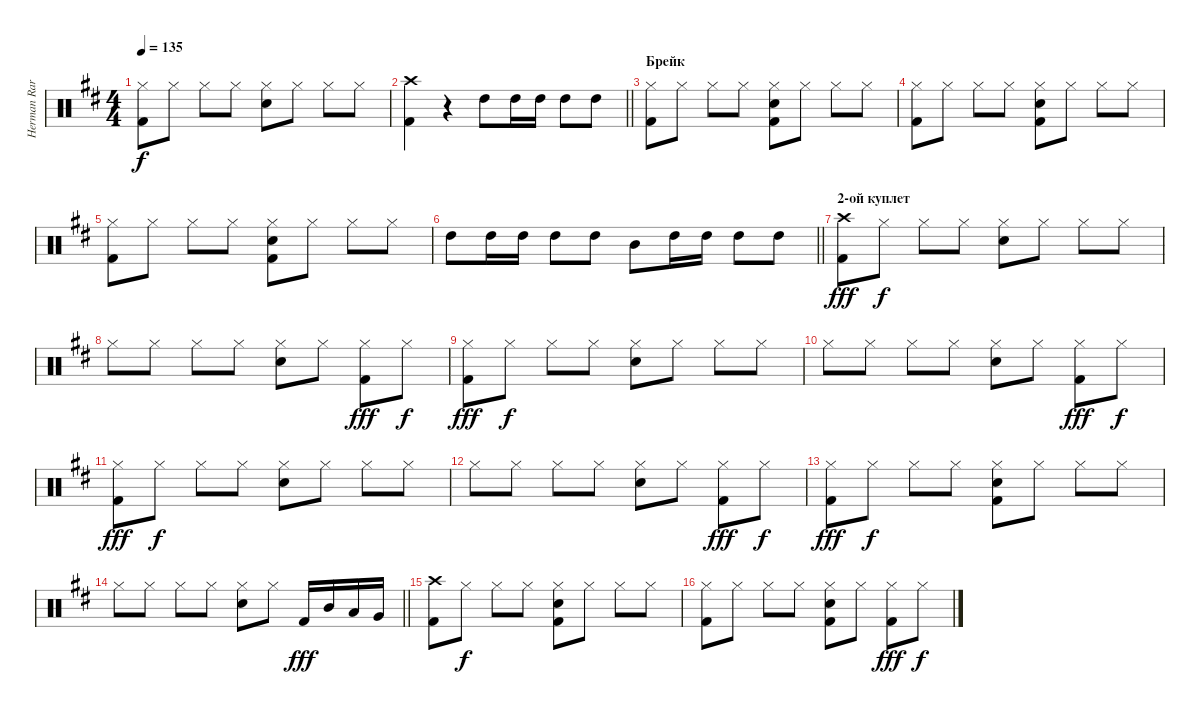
\track ("Herman Rarebell" "Herman Rar") {instrument percussion}
\staff {score}
\articulation defaults
\ts (4 4)
\tempo 135
\clef neutral
\ks d
("Hi-Hat (closed)" "Kick (hit) 2").8{dy f} "Hi-Hat (closed)".8 "Hi-Hat (closed)".8 "Hi-Hat (closed)".8 ("Hi-Hat (closed)" "Snare (hit) 2").8 "Hi-Hat (closed)".8 "Hi-Hat (closed)".8 "Hi-Hat (closed)".8 |
\barLineRight lightlight
("Crash high (hit)" "Kick (hit) 2").4 r.4 "High Tom (hit)".8 "High Tom (hit)".16 "High Tom (hit)".16 "High Tom (hit)".8 "High Tom (hit)".8 |
\section ("" "Брейк")
("Hi-Hat (closed)" "Kick (hit) 2").8 "Hi-Hat (closed)".8 "Hi-Hat (closed)".8 "Hi-Hat (closed)".8 ("Hi-Hat (closed)" "Snare (hit) 2" "Kick (hit) 2").8 "Hi-Hat (closed)".8 "Hi-Hat (closed)".8 "Hi-Hat (closed)".8 |
("Hi-Hat (closed)" "Kick (hit) 2").8 "Hi-Hat (closed)".8 "Hi-Hat (closed)".8 "Hi-Hat (closed)".8 ("Hi-Hat (closed)" "Snare (hit) 2" "Kick (hit) 2").8 "Hi-Hat (closed)".8 "Hi-Hat (closed)".8 "Hi-Hat (closed)".8 |
("Hi-Hat (closed)" "Kick (hit) 2").8 "Hi-Hat (closed)".8 "Hi-Hat (closed)".8 "Hi-Hat (closed)".8 ("Hi-Hat (closed)" "Snare (hit) 2" "Kick (hit) 2").8 "Hi-Hat (closed)".8 "Hi-Hat (closed)".8 "Hi-Hat (closed)".8 |
\barLineRight lightlight "High Tom (hit)".8 "High Tom (hit)".16 "High Tom (hit)".16 "High Tom (hit)".8 "High Tom (hit)".8 "Mid Tom (hit)".8 "High Tom (hit)".16 "High Tom (hit)".16 "High Tom (hit)".8 "High Tom (hit)".8
|
\section ("" "2-ой куплет")
("Crash high (hit)" "Kick (hit) 2").8{dy fff} "Hi-Hat (closed)".8{dy f} "Hi-Hat (closed)".8 "Hi-Hat (closed)".8 ("Hi-Hat (closed)" "Snare (hit) 2").8 "Hi-Hat (closed)".8 "Hi-Hat (closed)".8 "Hi-Hat (closed)".8 |
"Hi-Hat (closed)".8 "Hi-Hat (closed)".8 "Hi-Hat (closed)".8 "Hi-Hat (closed)".8 ("Hi-Hat (closed)" "Snare (hit) 2").8 "Hi-Hat (closed)".8 ("Hi-Hat (closed)" "Kick (hit) 2").8{dy fff} "Hi-Hat (closed)".8{dy f} |
("Hi-Hat (closed)" "Kick (hit) 2").8{dy fff} "Hi-Hat (closed)".8{dy f} "Hi-Hat (closed)".8 "Hi-Hat (closed)".8 ("Hi-Hat (closed)" "Snare (hit) 2").8 "Hi-Hat (closed)".8 "Hi-Hat (closed)".8 "Hi-Hat (closed)".8 |
"Hi-Hat (closed)".8 "Hi-Hat (closed)".8 "Hi-Hat (closed)".8 "Hi-Hat (closed)".8 ("Hi-Hat (closed)" "Snare (hit) 2").8 "Hi-Hat (closed)".8 ("Hi-Hat (closed)" "Kick (hit) 2").8{dy fff} "Hi-Hat (closed)".8{dy f} |
("Hi-Hat (closed)" "Kick (hit) 2").8{dy fff} "Hi-Hat (closed)".8{dy f} "Hi-Hat (closed)".8 "Hi-Hat (closed)".8 ("Hi-Hat (closed)" "Snare (hit) 2").8 "Hi-Hat (closed)".8 "Hi-Hat (closed)".8 "Hi-Hat (closed)".8 |
"Hi-Hat (closed)".8 "Hi-Hat (closed)".8 "Hi-Hat (closed)".8 "Hi-Hat (closed)".8 ("Hi-Hat (closed)" "Snare (hit) 2").8 "Hi-Hat (closed)".8 ("Hi-Hat (closed)" "Kick (hit) 2").8{dy fff} "Hi-Hat (closed)".8{dy f} |
("Hi-Hat (closed)" "Kick (hit) 2").8{dy fff} "Hi-Hat (closed)".8{dy f} "Hi-Hat (closed)".8 "Hi-Hat (closed)".8 ("Hi-Hat (closed)" "Snare (hit) 2" "Kick (hit) 2").8 "Hi-Hat (closed)".8 "Hi-Hat (closed)".8 "Hi-Hat (closed)".8 |
\barLineRight lightlight "Hi-Hat (closed)".8 "Hi-Hat (closed)".8 "Hi-Hat (closed)".8 "Hi-Hat (closed)".8
("Hi-Hat (closed)" "Snare (hit) 2").8 "Hi-Hat (closed)".8 "Kick (hit) 2".16{dy fff} "Mid Tom (hit)".16 "Low Tom (hit)".16 "Very Low Tom (hit)".16 |
("Crash high (hit)" "Kick (hit) 2").8 "Hi-Hat (closed)".8{dy f} "Hi-Hat (closed)".8 "Hi-Hat (closed)".8 ("Hi-Hat (closed)" "Snare (hit) 2" "Kick (hit) 2").8 "Hi-Hat (closed)".8 "Hi-Hat (closed)".8 "Hi-Hat (closed)".8 |
("Hi-Hat (closed)" "Kick (hit) 2").8 "Hi-Hat (closed)".8 "Hi-Hat (closed)".8 "Hi-Hat (closed)".8 ("Hi-Hat (closed)" "Snare (hit) 2" "Kick (hit) 2").8 "Hi-Hat (closed)".8 ("Hi-Hat (closed)" "Kick (hit) 2").8{dy fff} "Hi-Hat (closed)".8{dy f}
